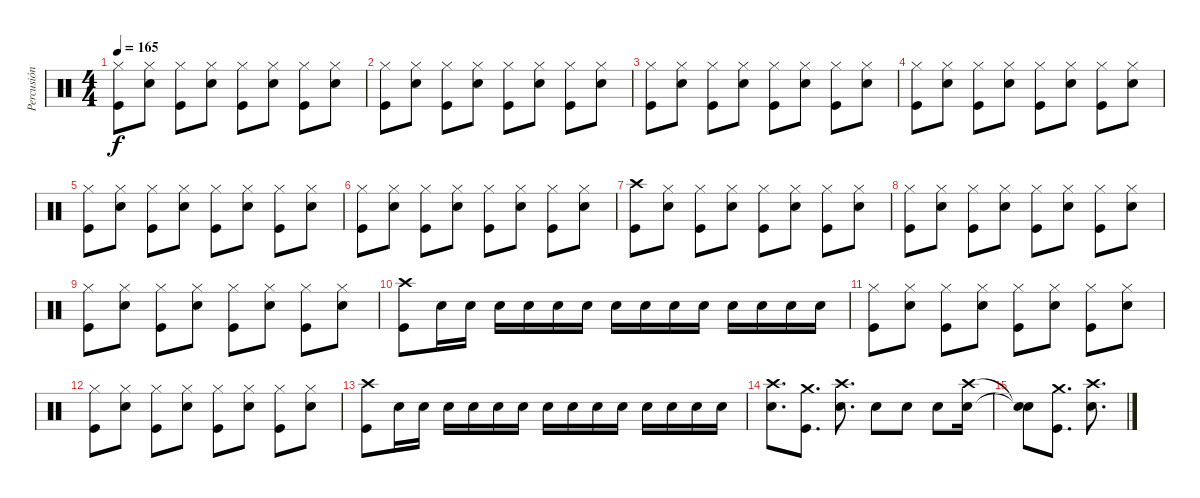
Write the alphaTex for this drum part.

\track ("Percusión" "Percusión") {instrument percussion}
\staff {score}
\articulation defaults
\ts (4 4)
\tempo 165
\clef neutral
\ks c
("Hi-Hat (closed)" "Kick (hit)").8{dy f} ("Hi-Hat (closed)" "Snare (hit) 2").8 ("Hi-Hat (closed)" "Kick (hit)").8 ("Hi-Hat (closed)" "Snare (hit) 2").8 ("Hi-Hat (closed)" "Kick (hit)").8 ("Hi-Hat (closed)" "Snare (hit) 2").8 ("Hi-Hat (closed)" "Kick (hit)").8 ("Hi-Hat (closed)" "Snare (hit) 2").8 |
("Hi-Hat (closed)" "Kick (hit)").8 ("Hi-Hat (closed)" "Snare (hit) 2").8 ("Hi-Hat (closed)" "Kick (hit)").8 ("Hi-Hat (closed)" "Snare (hit) 2").8 ("Hi-Hat (closed)" "Kick (hit)").8 ("Hi-Hat (closed)" "Snare (hit) 2").8 ("Hi-Hat (closed)" "Kick (hit)").8 ("Hi-Hat (closed)" "Snare (hit) 2").8 |
("Hi-Hat (closed)" "Kick (hit)").8 ("Hi-Hat (closed)" "Snare (hit) 2").8 ("Hi-Hat (closed)" "Kick (hit)").8 ("Hi-Hat (closed)" "Snare (hit) 2").8 ("Hi-Hat (closed)" "Kick (hit)").8 ("Hi-Hat (closed)" "Snare (hit) 2").8 ("Hi-Hat (closed)" "Kick (hit)").8 ("Hi-Hat (closed)" "Snare (hit) 2").8 |
("Hi-Hat (closed)" "Kick (hit)").8 ("Hi-Hat (closed)" "Snare (hit) 2").8 ("Hi-Hat (closed)" "Kick (hit)").8 ("Hi-Hat (closed)" "Snare (hit) 2").8 ("Hi-Hat (closed)" "Kick (hit)").8 ("Hi-Hat (closed)" "Snare (hit) 2").8 ("Hi-Hat (closed)" "Kick (hit)").8 ("Hi-Hat (closed)" "Snare (hit) 2").8 |
("Hi-Hat (closed)" "Kick (hit)").8 ("Hi-Hat (closed)" "Snare (hit) 2").8 ("Hi-Hat (closed)" "Kick (hit)").8 ("Hi-Hat (closed)" "Snare (hit) 2").8 ("Hi-Hat (closed)" "Kick (hit)").8 ("Hi-Hat (closed)" "Snare (hit) 2").8 ("Hi-Hat (closed)" "Kick (hit)").8 ("Hi-Hat (closed)" "Snare (hit) 2").8 |
("Hi-Hat (closed)" "Kick (hit)").8 ("Hi-Hat (closed)" "Snare (hit) 2").8 ("Hi-Hat (closed)" "Kick (hit)").8 ("Hi-Hat (closed)" "Snare (hit) 2").8 ("Hi-Hat (closed)" "Kick (hit)").8 ("Hi-Hat (closed)" "Snare (hit) 2").8 ("Hi-Hat (closed)" "Kick (hit)").8 ("Hi-Hat (closed)" "Snare (hit) 2").8 |
("Crash high (hit)" "Kick (hit)").8 ("Hi-Hat (closed)" "Snare (hit) 2").8 ("Hi-Hat (closed)" "Kick (hit)").8 ("Hi-Hat (closed)" "Snare (hit) 2").8 ("Hi-Hat (closed)" "Kick (hit)").8 ("Hi-Hat (closed)" "Snare (hit) 2").8 ("Hi-Hat (closed)" "Kick (hit)").8 ("Hi-Hat (closed)" "Snare (hit) 2").8 |
("Hi-Hat (closed)" "Kick (hit)").8 ("Hi-Hat (closed)" "Snare (hit) 2").8 ("Hi-Hat (closed)" "Kick (hit)").8 ("Hi-Hat (closed)" "Snare (hit) 2").8 ("Hi-Hat (closed)" "Kick (hit)").8 ("Hi-Hat (closed)" "Snare (hit) 2").8 ("Hi-Hat (closed)" "Kick (hit)").8 ("Hi-Hat (closed)" "Snare (hit) 2").8 |
("Hi-Hat (closed)" "Kick (hit)").8 ("Hi-Hat (closed)" "Snare (hit) 2").8 ("Hi-Hat (closed)" "Kick (hit)").8 ("Hi-Hat (closed)" "Snare (hit) 2").8 ("Hi-Hat (closed)" "Kick (hit)").8 ("Hi-Hat (closed)" "Snare (hit) 2").8 ("Hi-Hat (closed)" "Kick (hit)").8 ("Hi-Hat (closed)" "Snare (hit) 2").8 |
("Crash high (hit)" "Kick (hit)").8 "Snare (hit) 2".16 "Snare (hit) 2".16 "Snare (hit) 2".16 "Snare (hit) 2".16 "Snare (hit) 2".16 "Snare (hit) 2".16 "Snare (hit) 2".16 "Snare (hit) 2".16 "Snare (hit) 2".16 "Snare (hit) 2".16 "Snare (hit) 2".16 "Snare (hit) 2".16 "Snare (hit) 2".16 "Snare (hit) 2".16 |
("Hi-Hat (closed)" "Kick (hit)").8 ("Hi-Hat (closed)" "Snare (hit) 2").8 ("Hi-Hat (closed)" "Kick (hit)").8 ("Hi-Hat (closed)" "Snare (hit) 2").8 ("Hi-Hat (closed)" "Kick (hit)").8 ("Hi-Hat (closed)" "Snare (hit) 2").8 ("Hi-Hat (closed)" "Kick (hit)").8 ("Hi-Hat (closed)" "Snare (hit) 2").8 |
("Hi-Hat (closed)" "Kick (hit)").8 ("Hi-Hat (closed)" "Snare (hit) 2").8 ("Hi-Hat (closed)" "Kick (hit)").8 ("Hi-Hat (closed)" "Snare (hit) 2").8 ("Hi-Hat (closed)" "Kick (hit)").8 ("Hi-Hat (closed)" "Snare (hit) 2").8 ("Hi-Hat (closed)" "Kick (hit)").8 ("Hi-Hat (closed)" "Snare (hit) 2").8 |
("Crash high (hit)" "Kick (hit)").8 "Snare (hit) 2".16 "Snare (hit) 2".16 "Snare (hit) 2".16 "Snare (hit) 2".16 "Snare (hit) 2".16 "Snare (hit) 2".16 "Snare (hit) 2".16 "Snare (hit) 2".16 "Snare (hit) 2".16 "Snare (hit) 2".16 "Snare (hit) 2".16 "Snare (hit) 2".16 "Snare (hit) 2".16 "Snare (hit) 2".16 |
("Crash high (hit)" "Snare (hit) 2").8{d} ("Crash medium (hit)" "Kick (hit)").8{d} ("Crash high (hit)" "Snare (hit) 2").8{d} "Snare (hit) 2".8 "Snare (hit) 2".8 "Snare (hit) 2".8 ("Crash high (hit)" "Snare (hit) 2").16 |
("Snare (hit)"{t} "Snare (hit)"{t}).8 ("Crash medium (hit)" "Kick (hit)").8{d} ("Crash high (hit)" "Snare (hit) 2").8{d}
